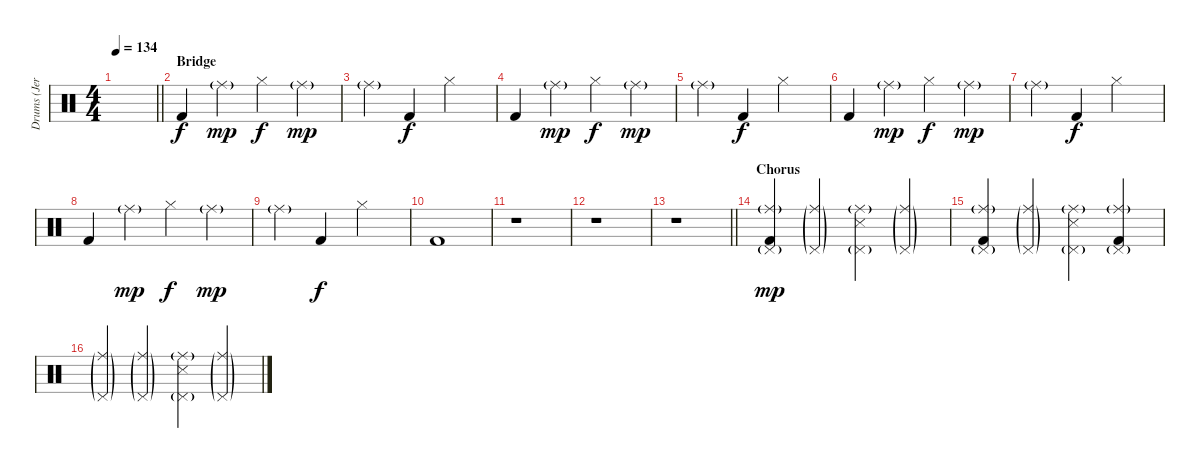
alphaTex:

\track ("Drums (Jeremy Taggart)" "Drums (Jer") {instrument percussion}
\staff
\articulation defaults
\ts (4 4)
\tempo 134
\clef neutral
\barLineRight lightlight
\ks c
|
\section ("" "Bridge")
"Kick (hit) 2".4 "Ride (middle)"{g}.4{dy mp} "Hi-Hat (closed)".4{dy f} "Ride (middle)"{g}.4{dy mp} |
"Ride (middle)"{g}.4 "Kick (hit) 2".4{dy f} "Hi-Hat (closed)".2 |
"Kick (hit) 2".4 "Ride (middle)"{g}.4{dy mp} "Hi-Hat (closed)".4{dy f} "Ride (middle)"{g}.4{dy mp} |
"Ride (middle)"{g}.4 "Kick (hit) 2".4{dy f} "Hi-Hat (closed)".2 |
"Kick (hit) 2".4 "Ride (middle)"{g}.4{dy mp} "Hi-Hat (closed)".4{dy f} "Ride (middle)"{g}.4{dy mp} |
"Ride (middle)"{g}.4 "Kick (hit) 2".4{dy f} "Hi-Hat (closed)".2 |
"Kick (hit) 2".4 "Ride (middle)"{g}.4{dy mp} "Hi-Hat (closed)".4{dy f} "Ride (middle)"{g}.4{dy mp} |
"Ride (middle)"{g}.4 "Kick (hit) 2".4{dy f} "Hi-Hat (closed)".2 |
"Kick (hit) 2".1 |
r.1 |
r.1 |
\barLineRight lightlight
r.1 |
\section ("" "Chorus")
("Ride (middle)"{g} "Pedal Hi-Hat (hit)"{g} "Kick (hit) 2").4{dy mp} ("Ride (middle)"{g} "Pedal Hi-Hat (hit)"{g}).4 ("Ride (middle)"{g} "Pedal Hi-Hat (hit)"{g} "Snare (side stick) 3").4 ("Ride (middle)"{g} "Pedal Hi-Hat (hit)"{g}).4 |
("Ride (middle)"{g} "Pedal Hi-Hat (hit)"{g} "Kick (hit) 2").4 ("Ride (middle)"{g} "Pedal Hi-Hat (hit)"{g}).4 ("Ride (middle)"{g} "Pedal Hi-Hat (hit)"{g} "Snare (side stick) 3").4 ("Ride (middle)"{g} "Pedal Hi-Hat (hit)"{g} "Kick (hit) 2").4 |
("Ride (middle)"{g} "Pedal Hi-Hat (hit)"{g}).4 ("Ride (middle)"{g} "Pedal Hi-Hat (hit)"{g}).4 ("Ride (middle)"{g} "Pedal Hi-Hat (hit)"{g} "Snare (side stick) 3").4 ("Ride (middle)"{g} "Pedal Hi-Hat (hit)"{g}).4
